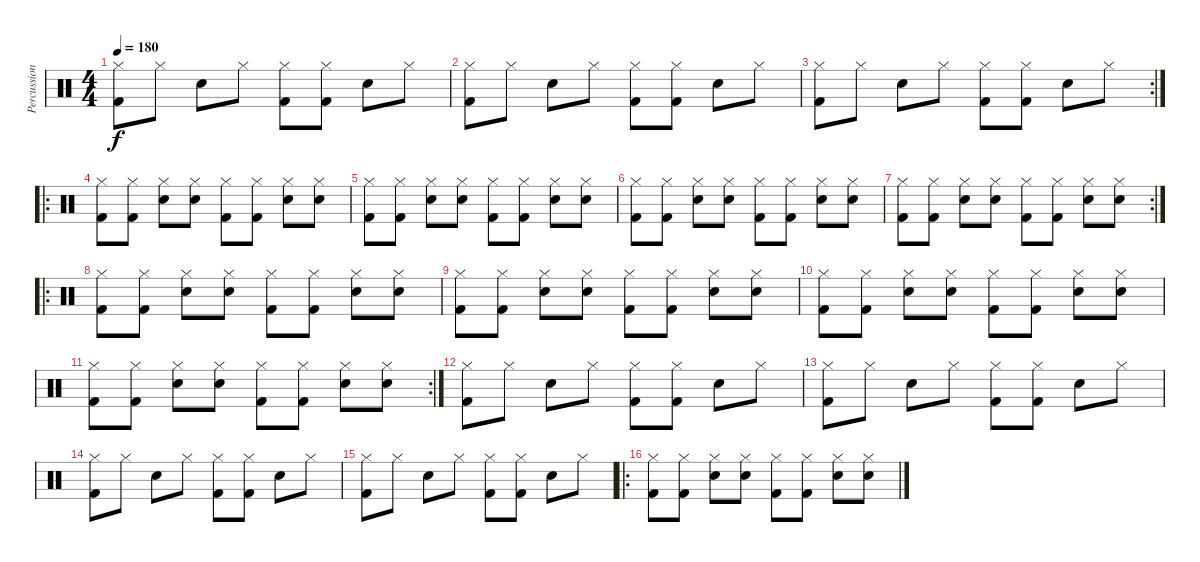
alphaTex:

\track ("Percussions" "Percussion") {instrument percussion}
\staff {score}
\articulation defaults
\ts (4 4)
\tempo 180
\clef neutral
\ks c
("Kick (hit) 2" "Hi-Hat (closed)").8{dy f} "Hi-Hat (closed)".8 "Electric Snare (hit)".8 "Hi-Hat (closed)".8 ("Kick (hit) 2" "Hi-Hat (closed)").8 ("Kick (hit) 2" "Hi-Hat (closed)").8 "Electric Snare (hit)".8 "Hi-Hat (closed)".8 |
("Kick (hit) 2" "Hi-Hat (closed)").8 "Hi-Hat (closed)".8 "Electric Snare (hit)".8 "Hi-Hat (closed)".8 ("Kick (hit) 2" "Hi-Hat (closed)").8 ("Kick (hit) 2" "Hi-Hat (closed)").8 "Electric Snare (hit)".8 "Hi-Hat (closed)".8 |
\rc 2
("Kick (hit) 2" "Hi-Hat (closed)").8 "Hi-Hat (closed)".8 "Electric Snare (hit)".8 "Hi-Hat (closed)".8 ("Kick (hit) 2" "Hi-Hat (closed)").8 ("Kick (hit) 2" "Hi-Hat (closed)").8 "Electric Snare (hit)".8 "Hi-Hat (closed)".8 |
\ro
("Kick (hit) 2" "Hi-Hat (closed)").8 ("Kick (hit) 2" "Hi-Hat (closed)").8 ("Electric Snare (hit)" "Hi-Hat (closed)").8 ("Electric Snare (hit)" "Hi-Hat (closed)").8 ("Kick (hit) 2" "Hi-Hat (closed)").8 ("Kick (hit) 2" "Hi-Hat (closed)").8 ("Electric Snare (hit)" "Hi-Hat (closed)").8 ("Electric Snare (hit)" "Hi-Hat (closed)").8 |
("Kick (hit) 2" "Hi-Hat (closed)").8 ("Kick (hit) 2" "Hi-Hat (closed)").8 ("Electric Snare (hit)" "Hi-Hat (closed)").8 ("Electric Snare (hit)" "Hi-Hat (closed)").8 ("Kick (hit) 2" "Hi-Hat (closed)").8 ("Kick (hit) 2" "Hi-Hat (closed)").8 ("Electric Snare (hit)" "Hi-Hat (closed)").8 ("Electric Snare (hit)" "Hi-Hat (closed)").8 |
("Kick (hit) 2" "Hi-Hat (closed)").8 ("Kick (hit) 2" "Hi-Hat (closed)").8 ("Electric Snare (hit)" "Hi-Hat (closed)").8 ("Electric Snare (hit)" "Hi-Hat (closed)").8 ("Kick (hit) 2" "Hi-Hat (closed)").8 ("Kick (hit) 2" "Hi-Hat (closed)").8 ("Electric Snare (hit)" "Hi-Hat (closed)").8 ("Electric Snare (hit)" "Hi-Hat (closed)").8 |
\rc 2
("Kick (hit) 2" "Hi-Hat (closed)").8 ("Kick (hit) 2" "Hi-Hat (closed)").8 ("Electric Snare (hit)" "Hi-Hat (closed)").8 ("Electric Snare (hit)" "Hi-Hat (closed)").8 ("Kick (hit) 2" "Hi-Hat (closed)").8 ("Kick (hit) 2" "Hi-Hat (closed)").8 ("Electric Snare (hit)" "Hi-Hat (closed)").8 ("Electric Snare (hit)" "Hi-Hat (closed)").8 |
\ro
("Kick (hit) 2" "Hi-Hat (closed)").8 ("Kick (hit) 2" "Hi-Hat (closed)").8 ("Electric Snare (hit)" "Hi-Hat (closed)").8 ("Electric Snare (hit)" "Hi-Hat (closed)").8 ("Kick (hit) 2" "Hi-Hat (closed)").8 ("Kick (hit) 2" "Hi-Hat (closed)").8 ("Electric Snare (hit)" "Hi-Hat (closed)").8 ("Electric Snare (hit)" "Hi-Hat (closed)").8 |
("Kick (hit) 2" "Hi-Hat (closed)").8 ("Kick (hit) 2" "Hi-Hat (closed)").8 ("Electric Snare (hit)" "Hi-Hat (closed)").8 ("Electric Snare (hit)" "Hi-Hat (closed)").8 ("Kick (hit) 2" "Hi-Hat (closed)").8 ("Kick (hit) 2" "Hi-Hat (closed)").8 ("Electric Snare (hit)" "Hi-Hat (closed)").8 ("Electric Snare (hit)" "Hi-Hat (closed)").8 |
("Kick (hit) 2" "Hi-Hat (closed)").8 ("Kick (hit) 2" "Hi-Hat (closed)").8 ("Electric Snare (hit)" "Hi-Hat (closed)").8 ("Electric Snare (hit)" "Hi-Hat (closed)").8 ("Kick (hit) 2" "Hi-Hat (closed)").8 ("Kick (hit) 2" "Hi-Hat (closed)").8 ("Electric Snare (hit)" "Hi-Hat (closed)").8 ("Electric Snare (hit)" "Hi-Hat (closed)").8 |
\rc 2
("Kick (hit) 2" "Hi-Hat (closed)").8 ("Kick (hit) 2" "Hi-Hat (closed)").8 ("Electric Snare (hit)" "Hi-Hat (closed)").8 ("Electric Snare (hit)" "Hi-Hat (closed)").8 ("Kick (hit) 2" "Hi-Hat (closed)").8 ("Kick (hit) 2" "Hi-Hat (closed)").8 ("Electric Snare (hit)" "Hi-Hat (closed)").8 ("Electric Snare (hit)" "Hi-Hat (closed)").8 |
("Kick (hit) 2" "Hi-Hat (closed)").8 "Hi-Hat (closed)".8 "Electric Snare (hit)".8 "Hi-Hat (closed)".8 ("Kick (hit) 2" "Hi-Hat (closed)").8 ("Kick (hit) 2" "Hi-Hat (closed)").8 "Electric Snare (hit)".8 "Hi-Hat (closed)".8 |
("Kick (hit) 2" "Hi-Hat (closed)").8 "Hi-Hat (closed)".8 "Electric Snare (hit)".8 "Hi-Hat (closed)".8 ("Kick (hit) 2" "Hi-Hat (closed)").8 ("Kick (hit) 2" "Hi-Hat (closed)").8 "Electric Snare (hit)".8 "Hi-Hat (closed)".8 |
("Kick (hit) 2" "Hi-Hat (closed)").8 "Hi-Hat (closed)".8 "Electric Snare (hit)".8 "Hi-Hat (closed)".8 ("Kick (hit) 2" "Hi-Hat (closed)").8 ("Kick (hit) 2" "Hi-Hat (closed)").8 "Electric Snare (hit)".8 "Hi-Hat (closed)".8 |
("Kick (hit) 2" "Hi-Hat (closed)").8 "Hi-Hat (closed)".8 "Electric Snare (hit)".8 "Hi-Hat (closed)".8 ("Kick (hit) 2" "Hi-Hat (closed)").8 ("Kick (hit) 2" "Hi-Hat (closed)").8 "Electric Snare (hit)".8 "Hi-Hat (closed)".8 |
\ro
("Kick (hit) 2" "Hi-Hat (closed)").8 ("Kick (hit) 2" "Hi-Hat (closed)").8 ("Electric Snare (hit)" "Hi-Hat (closed)").8 ("Electric Snare (hit)" "Hi-Hat (closed)").8 ("Kick (hit) 2" "Hi-Hat (closed)").8 ("Kick (hit) 2" "Hi-Hat (closed)").8 ("Electric Snare (hit)" "Hi-Hat (closed)").8 ("Electric Snare (hit)" "Hi-Hat (closed)").8
